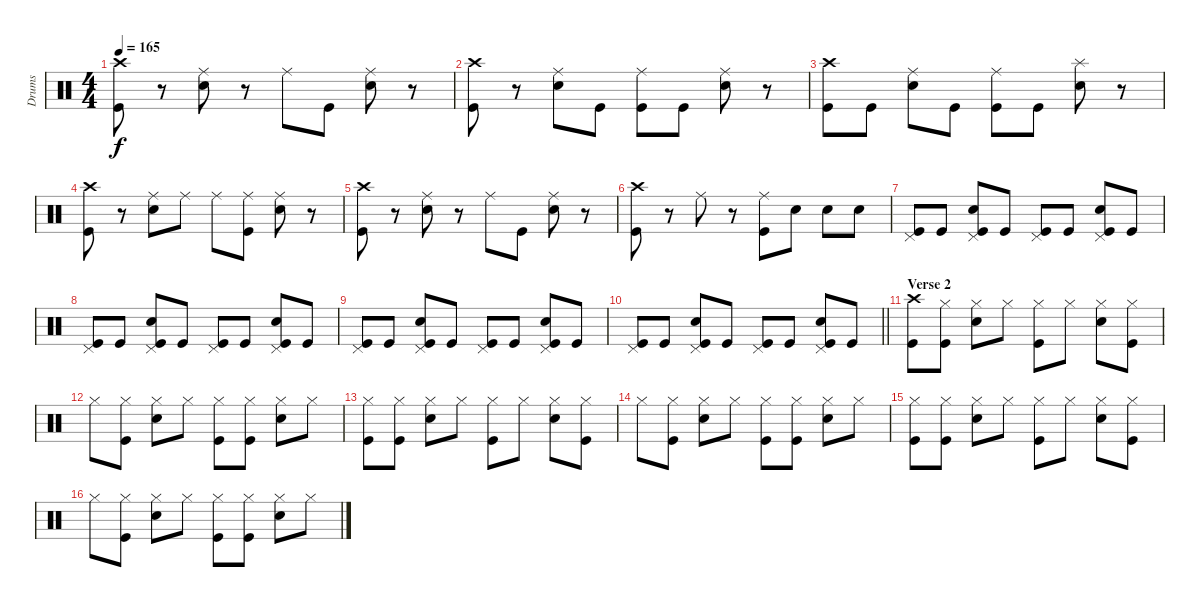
\track ("Drums" "Drums") {instrument percussion}
\staff {score}
\articulation defaults
\ts (4 4)
\tempo 165
\clef neutral
\ks c
("Crash high (hit)" "Kick (hit)").8{dy f} r.8 ("Ride (middle)" "Snare (hit) 2").8 r.8 "Ride (middle)".8 "Kick (hit)".8 ("Ride (middle)" "Snare (hit) 2").8 r.8 |
("Crash high (hit)" "Kick (hit)").8 r.8 ("Ride (middle)" "Snare (hit) 2").8 "Kick (hit)".8 ("Ride (middle)" "Kick (hit)").8 "Kick (hit)".8 ("Ride (middle)" "Snare (hit) 2").8 r.8 |
("Crash high (hit)" "Kick (hit)").8 "Kick (hit)".8 ("Ride (middle)" "Snare (hit) 2").8 "Kick (hit)".8 ("Ride (middle)" "Kick (hit)").8 "Kick (hit)".8 ("Splash (hit)" "Snare (hit) 2").8 r.8 |
("Crash high (hit)" "Kick (hit)").8 r.8 ("Ride (middle)" "Snare (hit) 2").8 "Ride (middle)".8 "Ride (middle)".8 ("Ride (middle)" "Kick (hit)").8 ("Ride (middle)" "Snare (hit) 2").8 r.8 |
("Crash high (hit)" "Kick (hit)").8 r.8 ("Ride (middle)" "Snare (hit) 2").8 r.8 "Ride (middle)".8 "Kick (hit)".8 ("Ride (middle)" "Snare (hit) 2").8 r.8 |
("Crash high (hit)" "Kick (hit)").8 r.8 "Ride (middle)".8 r.8 ("Ride (middle)" "Kick (hit)").8 "Snare (hit) 2".8 "Snare (hit) 2".8 "Snare (hit) 2".8 |
("Pedal Hi-Hat (hit)" "Kick (hit)").8 "Kick (hit)".8 ("Pedal Hi-Hat (hit)" "Snare (hit) 2" "Kick (hit)").8 "Kick (hit)".8 ("Pedal Hi-Hat (hit)" "Kick (hit)").8 "Kick (hit)".8 ("Pedal Hi-Hat (hit)" "Snare (hit) 2" "Kick (hit)").8 "Kick (hit)".8 |
("Pedal Hi-Hat (hit)" "Kick (hit)").8 "Kick (hit)".8 ("Pedal Hi-Hat (hit)" "Snare (hit) 2" "Kick (hit)").8 "Kick (hit)".8 ("Pedal Hi-Hat (hit)" "Kick (hit)").8 "Kick (hit)".8 ("Pedal Hi-Hat (hit)" "Snare (hit) 2" "Kick (hit)").8 "Kick (hit)".8 |
("Pedal Hi-Hat (hit)" "Kick (hit)").8 "Kick (hit)".8 ("Pedal Hi-Hat (hit)" "Snare (hit) 2" "Kick (hit)").8 "Kick (hit)".8 ("Pedal Hi-Hat (hit)" "Kick (hit)").8 "Kick (hit)".8 ("Pedal Hi-Hat (hit)" "Snare (hit) 2" "Kick (hit)").8 "Kick (hit)".8 |
\barLineRight lightlight
("Pedal Hi-Hat (hit)" "Kick (hit)").8 "Kick (hit)".8 ("Pedal Hi-Hat (hit)" "Snare (hit) 2" "Kick (hit)").8 "Kick (hit)".8 ("Pedal Hi-Hat (hit)" "Kick (hit)").8 "Kick (hit)".8 ("Pedal Hi-Hat (hit)" "Snare (hit) 2" "Kick (hit)").8 "Kick (hit)".8 |
\section ("" "Verse 2")
("Crash high (hit)" "Kick (hit)").8 ("Hi-Hat (closed)" "Kick (hit)").8 ("Hi-Hat (closed)" "Snare (hit) 2").8 "Hi-Hat (closed)".8 ("Hi-Hat (closed)" "Kick (hit)").8 "Hi-Hat (closed)".8 ("Hi-Hat (closed)" "Snare (hit) 2").8 ("Hi-Hat (closed)" "Kick (hit)").8 |
"Hi-Hat (closed)".8 ("Hi-Hat (closed)" "Kick (hit)").8 ("Hi-Hat (closed)" "Snare (hit) 2").8 "Hi-Hat (closed)".8 ("Hi-Hat (closed)" "Kick (hit)").8 ("Hi-Hat (closed)" "Kick (hit)").8 ("Hi-Hat (closed)" "Snare (hit) 2").8 "Hi-Hat (closed)".8 |
("Hi-Hat (closed)" "Kick (hit)").8 ("Hi-Hat (closed)" "Kick (hit)").8 ("Hi-Hat (closed)" "Snare (hit) 2").8 "Hi-Hat (closed)".8 ("Hi-Hat (closed)" "Kick (hit)").8 "Hi-Hat (closed)".8 ("Hi-Hat (closed)" "Snare (hit) 2").8 ("Hi-Hat (closed)" "Kick (hit)").8 |
"Hi-Hat (closed)".8 ("Hi-Hat (closed)" "Kick (hit)").8 ("Hi-Hat (closed)" "Snare (hit) 2").8 "Hi-Hat (closed)".8 ("Hi-Hat (closed)" "Kick (hit)").8 ("Hi-Hat (closed)" "Kick (hit)").8 ("Hi-Hat (closed)" "Snare (hit) 2").8 "Hi-Hat (closed)".8 |
("Hi-Hat (closed)" "Kick (hit)").8 ("Hi-Hat (closed)" "Kick (hit)").8 ("Hi-Hat (closed)" "Snare (hit) 2").8 "Hi-Hat (closed)".8 ("Hi-Hat (closed)" "Kick (hit)").8 "Hi-Hat (closed)".8 ("Hi-Hat (closed)" "Snare (hit) 2").8 ("Hi-Hat (closed)" "Kick (hit)").8 |
"Hi-Hat (closed)".8 ("Hi-Hat (closed)" "Kick (hit)").8 ("Hi-Hat (closed)" "Snare (hit) 2").8 "Hi-Hat (closed)".8 ("Hi-Hat (closed)" "Kick (hit)").8 ("Hi-Hat (closed)" "Kick (hit)").8 ("Hi-Hat (closed)" "Snare (hit) 2").8 "Hi-Hat (closed)".8
